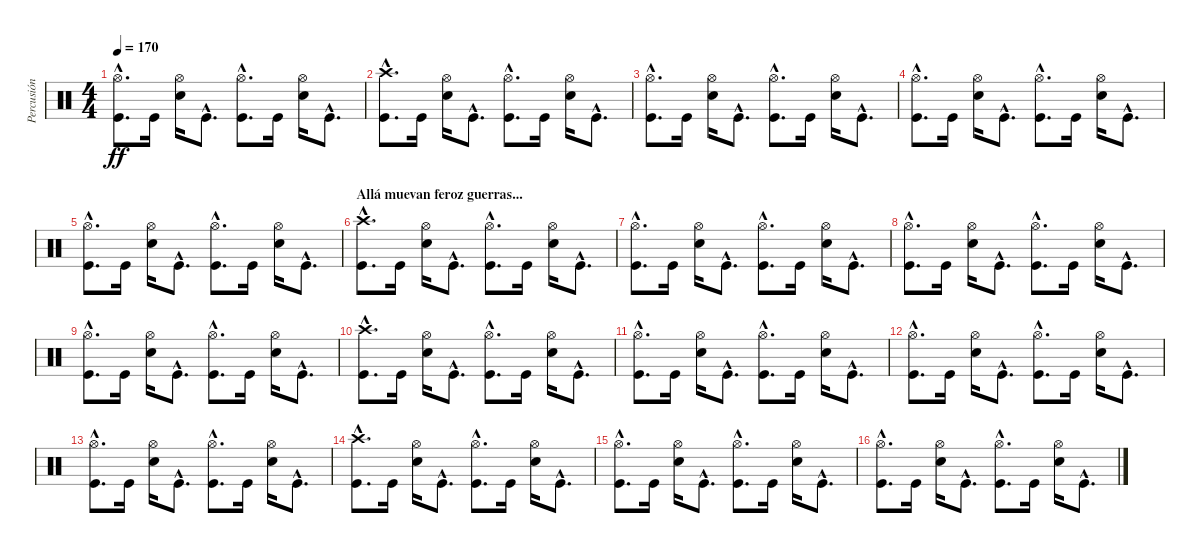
\track ("Percusión" "Percusión") {instrument percussion}
\staff {score}
\articulation defaults
\ts (4 4)
\tempo 170
\clef neutral
\ks c
("Hi-Hat (open)"{hac} "Kick (hit)"{hac}).8{d dy ff} "Kick (hit)".16 ("Hi-Hat (open)" "Snare (hit) 2").16 "Kick (hit)"{hac}.8{d} ("Hi-Hat (open)"{hac} "Kick (hit)"{hac}).8{d} "Kick (hit)".16 ("Hi-Hat (open)" "Snare (hit) 2").16 "Kick (hit)"{hac}.8{d} |
("Crash high (hit)"{hac} "Kick (hit)"{hac}).8{d} "Kick (hit)".16 ("Hi-Hat (open)" "Snare (hit) 2").16 "Kick (hit)"{hac}.8{d} ("Hi-Hat (open)"{hac} "Kick (hit)"{hac}).8{d} "Kick (hit)".16 ("Hi-Hat (open)" "Snare (hit) 2").16 "Kick (hit)"{hac}.8{d} |
("Hi-Hat (open)"{hac} "Kick (hit)"{hac}).8{d} "Kick (hit)".16 ("Hi-Hat (open)" "Snare (hit) 2").16 "Kick (hit)"{hac}.8{d} ("Hi-Hat (open)"{hac} "Kick (hit)"{hac}).8{d} "Kick (hit)".16 ("Hi-Hat (open)" "Snare (hit) 2").16 "Kick (hit)"{hac}.8{d} |
("Hi-Hat (open)"{hac} "Kick (hit)"{hac}).8{d} "Kick (hit)".16 ("Hi-Hat (open)" "Snare (hit) 2").16 "Kick (hit)"{hac}.8{d} ("Hi-Hat (open)"{hac} "Kick (hit)"{hac}).8{d} "Kick (hit)".16 ("Hi-Hat (open)" "Snare (hit) 2").16 "Kick (hit)"{hac}.8{d} |
("Hi-Hat (open)"{hac} "Kick (hit)"{hac}).8{d} "Kick (hit)".16 ("Hi-Hat (open)" "Snare (hit) 2").16 "Kick (hit)"{hac}.8{d} ("Hi-Hat (open)"{hac} "Kick (hit)"{hac}).8{d} "Kick (hit)".16 ("Hi-Hat (open)" "Snare (hit) 2").16 "Kick (hit)"{hac}.8{d} |
\section ("" "Allá muevan feroz guerras...")
("Crash high (hit)"{hac} "Kick (hit)"{hac}).8{d} "Kick (hit)".16 ("Hi-Hat (open)" "Snare (hit) 2").16 "Kick (hit)"{hac}.8{d} ("Hi-Hat (open)"{hac} "Kick (hit)"{hac}).8{d} "Kick (hit)".16 ("Hi-Hat (open)" "Snare (hit) 2").16 "Kick (hit)"{hac}.8{d} |
("Hi-Hat (open)"{hac} "Kick (hit)"{hac}).8{d} "Kick (hit)".16 ("Hi-Hat (open)" "Snare (hit) 2").16 "Kick (hit)"{hac}.8{d} ("Hi-Hat (open)"{hac} "Kick (hit)"{hac}).8{d} "Kick (hit)".16 ("Hi-Hat (open)" "Snare (hit) 2").16 "Kick (hit)"{hac}.8{d} |
("Hi-Hat (open)"{hac} "Kick (hit)"{hac}).8{d} "Kick (hit)".16 ("Hi-Hat (open)" "Snare (hit) 2").16 "Kick (hit)"{hac}.8{d} ("Hi-Hat (open)"{hac} "Kick (hit)"{hac}).8{d} "Kick (hit)".16 ("Hi-Hat (open)" "Snare (hit) 2").16 "Kick (hit)"{hac}.8{d} |
("Hi-Hat (open)"{hac} "Kick (hit)"{hac}).8{d} "Kick (hit)".16 ("Hi-Hat (open)" "Snare (hit) 2").16 "Kick (hit)"{hac}.8{d} ("Hi-Hat (open)"{hac} "Kick (hit)"{hac}).8{d} "Kick (hit)".16 ("Hi-Hat (open)" "Snare (hit) 2").16 "Kick (hit)"{hac}.8{d} |
("Crash high (hit)"{hac} "Kick (hit)"{hac}).8{d} "Kick (hit)".16 ("Hi-Hat (open)" "Snare (hit) 2").16 "Kick (hit)"{hac}.8{d} ("Hi-Hat (open)"{hac} "Kick (hit)"{hac}).8{d} "Kick (hit)".16 ("Hi-Hat (open)" "Snare (hit) 2").16 "Kick (hit)"{hac}.8{d} |
("Hi-Hat (open)"{hac} "Kick (hit)"{hac}).8{d} "Kick (hit)".16 ("Hi-Hat (open)" "Snare (hit) 2").16 "Kick (hit)"{hac}.8{d} ("Hi-Hat (open)"{hac} "Kick (hit)"{hac}).8{d} "Kick (hit)".16 ("Hi-Hat (open)" "Snare (hit) 2").16 "Kick (hit)"{hac}.8{d} |
("Hi-Hat (open)"{hac} "Kick (hit)"{hac}).8{d} "Kick (hit)".16 ("Hi-Hat (open)" "Snare (hit) 2").16 "Kick (hit)"{hac}.8{d} ("Hi-Hat (open)"{hac} "Kick (hit)"{hac}).8{d} "Kick (hit)".16 ("Hi-Hat (open)" "Snare (hit) 2").16 "Kick (hit)"{hac}.8{d} |
("Hi-Hat (open)"{hac} "Kick (hit)"{hac}).8{d} "Kick (hit)".16 ("Hi-Hat (open)" "Snare (hit) 2").16 "Kick (hit)"{hac}.8{d} ("Hi-Hat (open)"{hac} "Kick (hit)"{hac}).8{d} "Kick (hit)".16 ("Hi-Hat (open)" "Snare (hit) 2").16 "Kick (hit)"{hac}.8{d} |
("Crash high (hit)"{hac} "Kick (hit)"{hac}).8{d} "Kick (hit)".16 ("Hi-Hat (open)" "Snare (hit) 2").16 "Kick (hit)"{hac}.8{d} ("Hi-Hat (open)"{hac} "Kick (hit)"{hac}).8{d} "Kick (hit)".16 ("Hi-Hat (open)" "Snare (hit) 2").16 "Kick (hit)"{hac}.8{d} |
("Hi-Hat (open)"{hac} "Kick (hit)"{hac}).8{d} "Kick (hit)".16 ("Hi-Hat (open)" "Snare (hit) 2").16 "Kick (hit)"{hac}.8{d} ("Hi-Hat (open)"{hac} "Kick (hit)"{hac}).8{d} "Kick (hit)".16 ("Hi-Hat (open)" "Snare (hit) 2").16 "Kick (hit)"{hac}.8{d} |
("Hi-Hat (open)"{hac} "Kick (hit)"{hac}).8{d} "Kick (hit)".16 ("Hi-Hat (open)" "Snare (hit) 2").16 "Kick (hit)"{hac}.8{d} ("Hi-Hat (open)"{hac} "Kick (hit)"{hac}).8{d} "Kick (hit)".16 ("Hi-Hat (open)" "Snare (hit) 2").16 "Kick (hit)"{hac}.8{d}
